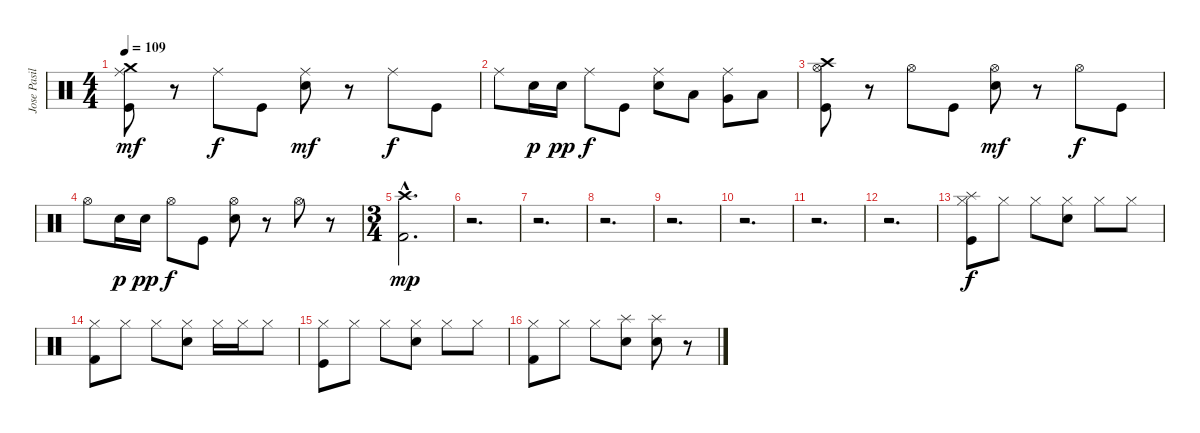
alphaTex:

\track ("Jose Pasillas" "Jose Pasil") {instrument percussion}
\staff {score}
\articulation defaults
\ts (4 4)
\tempo 109
\clef neutral
\ks c
("Ride (middle)" "Crash medium (hit)" "Kick (hit)").8{dy mf} r.8 "Ride (middle)".8{dy f} "Kick (hit)".8 ("Ride (middle)" "Electric Snare (hit)").8{dy mf} r.8 "Ride (middle)".8{dy f} "Kick (hit)".8 |
"Ride (middle)".8 "Electric Snare (hit)".16{dy p} "Electric Snare (hit)".16{dy pp} "Ride (middle)".8{dy f} "Kick (hit)".8 ("Ride (middle)" "Electric Snare (hit)").8 "Low Tom (hit)".8 ("Ride (middle)" "Very Low Tom (hit)").8 "Low Floor Tom (hit)".8 |
("Hi-Hat (open)" "Crash high (hit)" "Kick (hit)").8 r.8 "Hi-Hat (open)".8 "Kick (hit)".8 ("Hi-Hat (open)" "Electric Snare (hit)").8{dy mf} r.8 "Hi-Hat (open)".8{dy f} "Kick (hit)".8 |
"Hi-Hat (open)".8 "Electric Snare (hit)".16{dy p} "Electric Snare (hit)".16{dy pp} "Hi-Hat (open)".8{dy f} "Kick (hit)".8 ("Hi-Hat (open)" "Electric Snare (hit)").8 r.8 "Hi-Hat (open)".8 r.8 |
\ts (3 4)
("Crash high (hit)"{hac} "Kick (hit) 2"{hac}).2{d dy mp} |
r.2{d} |
r.2{d} |
r.2{d} |
r.2{d} |
r.2{d} |
r.2{d} |
r.2{d} |
("Hi-Hat (closed)" "Splash (hit)" "Kick (hit)").8{dy f} "Hi-Hat (closed)".8 "Hi-Hat (closed)".8 ("Hi-Hat (closed)" "Electric Snare (hit)").8 "Hi-Hat (closed)".8 "Hi-Hat (closed)".8 |
("Hi-Hat (closed)" "Kick (hit) 2").8 "Hi-Hat (closed)".8 "Hi-Hat (closed)".8 ("Hi-Hat (closed)" "Electric Snare (hit)").8 "Hi-Hat (closed)".16 "Hi-Hat (closed)".16 "Hi-Hat (closed)".8 |
("Hi-Hat (closed)" "Kick (hit)").8 "Hi-Hat (closed)".8 "Hi-Hat (closed)".8 ("Hi-Hat (closed)" "Electric Snare (hit)").8 "Hi-Hat (closed)".8 "Hi-Hat (closed)".8 |
("Hi-Hat (closed)" "Kick (hit) 2").8 "Hi-Hat (closed)".8 "Hi-Hat (closed)".8 ("Splash (hit)" "Electric Snare (hit)").8 ("Splash (hit)" "Electric Snare (hit)").8 r.8
